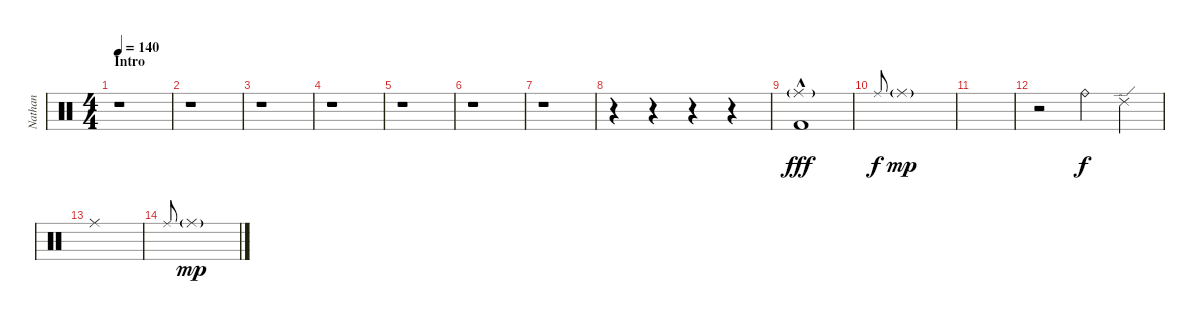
\track ("Nathan" "Nathan") {instrument percussion}
\staff {score}
\articulation defaults
\ts (4 4)
\section ("" "Intro")
\tempo 140
\clef neutral
\ks c
r.1{dy fff} |
r.1 |
r.1 |
r.1 |
r.1 |
r.1 |
r.1 |
r.4 r.4 r.4 r.4 |
("Ride (middle)"{g} "Kick (hit) 2"{hac}).1 |
"Ride (middle)".8{gr onbeat dy f} "Ride (middle)"{g}.1{dy mp} |
|
r.2 "Ride (bell)".4{dy f} "Ride (edge) 2".4 |
"Ride (middle)".1 |
"Ride (middle)".8{gr onbeat} "Ride (middle)"{g}.1{dy mp}
